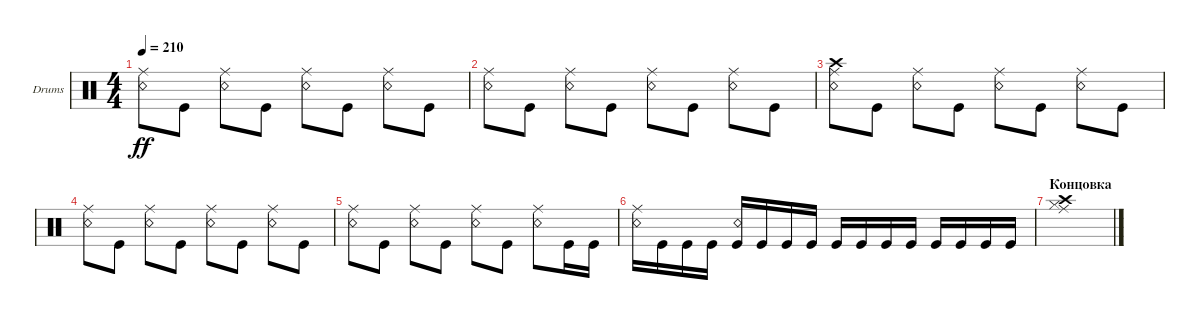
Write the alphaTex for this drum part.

\defaultSystemsLayout 4
\bracketExtendMode groupsimilarinstruments
\firstSystemTrackNameOrientation horizontal
\otherSystemsTrackNameOrientation horizontal
\track ("Drumkit" "Drums") {instrument percussion}
\staff {score}
\articulation defaults
\ts (4 4)
\tempo 210
\clef neutral
\ks c
("Snare (rim shot)" "Ride (middle)").8{dy ff} "Kick (hit)".8 ("Snare (rim shot)" "Ride (middle)").8 "Kick (hit)".8 ("Snare (rim shot)" "Ride (middle)").8 "Kick (hit)".8 ("Snare (rim shot)" "Ride (middle)").8 "Kick (hit)".8 |
("Snare (rim shot)" "Ride (middle)").8 "Kick (hit)".8 ("Snare (rim shot)" "Ride (middle)").8 "Kick (hit)".8 ("Snare (rim shot)" "Ride (middle)").8 "Kick (hit)".8 ("Snare (rim shot)" "Ride (middle)").8 "Kick (hit)".8 |
("Snare (rim shot)" "Ride (middle)" "Crash high (hit)").8 "Kick (hit)".8 ("Snare (rim shot)" "Ride (middle)").8 "Kick (hit)".8 ("Snare (rim shot)" "Ride (middle)").8 "Kick (hit)".8 ("Snare (rim shot)" "Ride (middle)").8 "Kick (hit)".8 |
("Snare (rim shot)" "Ride (middle)").8 "Kick (hit)".8 ("Snare (rim shot)" "Ride (middle)").8 "Kick (hit)".8 ("Snare (rim shot)" "Ride (middle)").8 "Kick (hit)".8 ("Snare (rim shot)" "Ride (middle)").8 "Kick (hit)".8 |
("Snare (rim shot)" "Ride (middle)").8 "Kick (hit)".8 ("Snare (rim shot)" "Ride (middle)").8 "Kick (hit)".8 ("Snare (rim shot)" "Ride (middle)").8 "Kick (hit)".8 ("Snare (rim shot)" "Ride (middle)").8 "Kick (hit)".16 "Kick (hit)".16 |
("Snare (rim shot)" "Ride (middle)").16 "Kick (hit)".16 "Kick (hit)".16 "Kick (hit)".16 ("Kick (hit)" "Snare (rim shot)").16 "Kick (hit)".16 "Kick (hit)".16 "Kick (hit)".16 "Kick (hit)".16 "Kick (hit)".16 "Kick (hit)".16 "Kick (hit)".16 "Kick (hit)".16 "Kick (hit)".16 "Kick (hit)".16 "Kick (hit)".16 |
\section ("" "Концовка")
("Crash high (hit)" "Hi-Hat (closed)" "Ride (middle)").1
